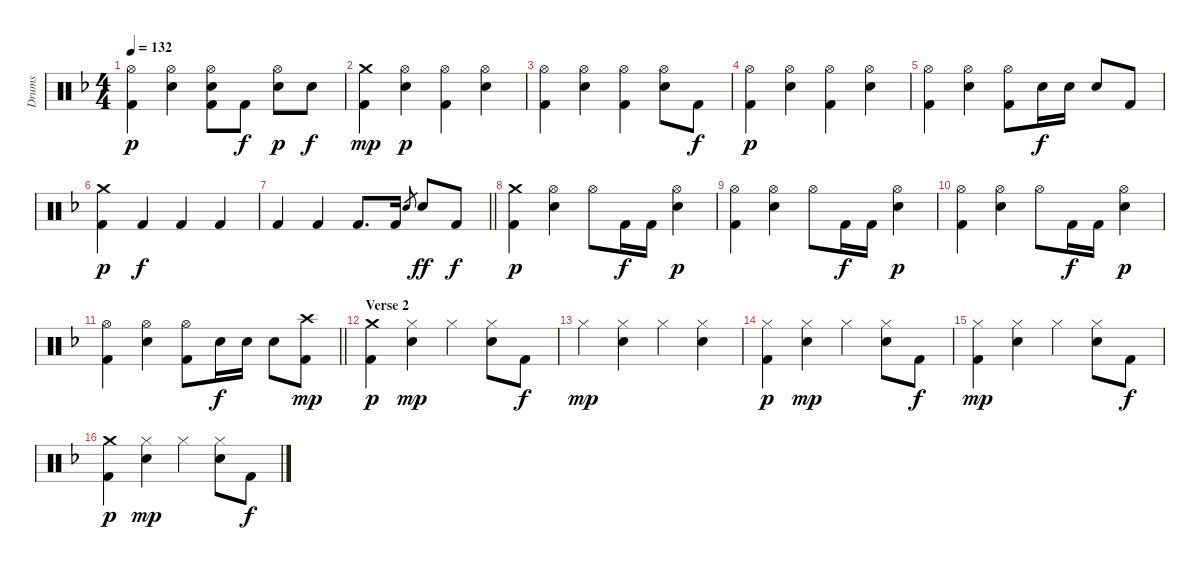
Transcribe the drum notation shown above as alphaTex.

\track ("Drums" "Drums") {instrument percussion}
\staff {score}
\articulation defaults
\ts (4 4)
\tempo 132
\clef neutral
\ks f
("Hi-Hat (open)" "Kick (hit) 2").4{dy p} ("Hi-Hat (open)" "Electric Snare (hit)").4 ("Hi-Hat (open)" "Kick (hit) 2" "Electric Snare (hit)").8 "Kick (hit) 2".8{dy f} ("Hi-Hat (open)" "Electric Snare (hit)").8{dy p} "Electric Snare (hit)".8{dy f} |
("Crash medium (hit)" "Kick (hit) 2").4{dy mp} ("Hi-Hat (open)" "Electric Snare (hit)").4{dy p} ("Hi-Hat (open)" "Kick (hit) 2").4 ("Hi-Hat (open)" "Electric Snare (hit)").4 |
("Hi-Hat (open)" "Kick (hit) 2").4 ("Hi-Hat (open)" "Electric Snare (hit)").4 ("Hi-Hat (open)" "Kick (hit) 2").4 ("Hi-Hat (open)" "Electric Snare (hit)").8 "Kick (hit) 2".8{dy f} |
("Hi-Hat (open)" "Kick (hit) 2").4{dy p} ("Hi-Hat (open)" "Electric Snare (hit)").4 ("Hi-Hat (open)" "Kick (hit) 2").4 ("Hi-Hat (open)" "Electric Snare (hit)").4 |
("Hi-Hat (open)" "Kick (hit) 2").4 ("Hi-Hat (open)" "Electric Snare (hit)").4 ("Hi-Hat (open)" "Kick (hit) 2").8 "Electric Snare (hit)".16{dy f} "Electric Snare (hit)".16 "Electric Snare (hit)".8 "Kick (hit) 2".8 |
("Crash medium (hit)" "Kick (hit) 2").4{dy p} "Kick (hit) 2".4{dy f} "Kick (hit) 2".4 "Kick (hit) 2".4 |
\barLineRight lightlight "Kick (hit) 2".4 "Kick (hit) 2".4 "Kick (hit) 2".8{d} "Kick (hit) 2".16 "Electric Snare (hit)".8{gr} "Electric Snare (hit)".8{dy ff} "Kick (hit) 2".8{dy f}
|
("Crash medium (hit)" "Kick (hit) 2").4{dy p} ("Hi-Hat (open)" "Electric Snare (hit)").4 "Hi-Hat (open)".8 "Kick (hit) 2".16{dy f} "Kick (hit) 2".16 ("Hi-Hat (open)" "Electric Snare (hit)").4{dy p} |
("Hi-Hat (open)" "Kick (hit) 2").4 ("Hi-Hat (open)" "Electric Snare (hit)").4 "Hi-Hat (open)".8 "Kick (hit) 2".16{dy f} "Kick (hit) 2".16 ("Hi-Hat (open)" "Electric Snare (hit)").4{dy p} |
("Hi-Hat (open)" "Kick (hit) 2").4 ("Hi-Hat (open)" "Electric Snare (hit)").4 "Hi-Hat (open)".8 "Kick (hit) 2".16{dy f} "Kick (hit) 2".16 ("Hi-Hat (open)" "Electric Snare (hit)").4{dy p} |
\barLineRight lightlight
("Hi-Hat (open)" "Kick (hit) 2").4 ("Hi-Hat (open)" "Electric Snare (hit)").4 ("Hi-Hat (open)" "Kick (hit) 2").8 "Electric Snare (hit)".16{dy f} "Electric Snare (hit)".16 "Electric Snare (hit)".8 ("Kick (hit) 2" "Crash high (hit)").8{dy mp} |
\section ("" "Verse 2")
("Crash medium (hit)" "Kick (hit) 2").4{dy p} ("Hi-Hat (closed)" "Electric Snare (hit)").4{dy mp} "Hi-Hat (closed)".4 ("Hi-Hat (closed)" "Electric Snare (hit)").8 "Kick (hit) 2".8{dy f} |
"Hi-Hat (closed)".4{dy mp} ("Hi-Hat (closed)" "Electric Snare (hit)").4 "Hi-Hat (closed)".4 ("Hi-Hat (closed)" "Electric Snare (hit)").4 |
("Hi-Hat (closed)" "Kick (hit) 2").4{dy p} ("Hi-Hat (closed)" "Electric Snare (hit)").4{dy mp} "Hi-Hat (closed)".4 ("Hi-Hat (closed)" "Electric Snare (hit)").8 "Kick (hit) 2".8{dy f} |
("Hi-Hat (closed)" "Kick (hit) 2").4{dy mp} ("Hi-Hat (closed)" "Electric Snare (hit)").4 "Hi-Hat (closed)".4 ("Hi-Hat (closed)" "Electric Snare (hit)").8 "Kick (hit) 2".8{dy f} |
("Crash medium (hit)" "Kick (hit) 2").4{dy p} ("Hi-Hat (closed)" "Electric Snare (hit)").4{dy mp} "Hi-Hat (closed)".4 ("Hi-Hat (closed)" "Electric Snare (hit)").8 "Kick (hit) 2".8{dy f}
